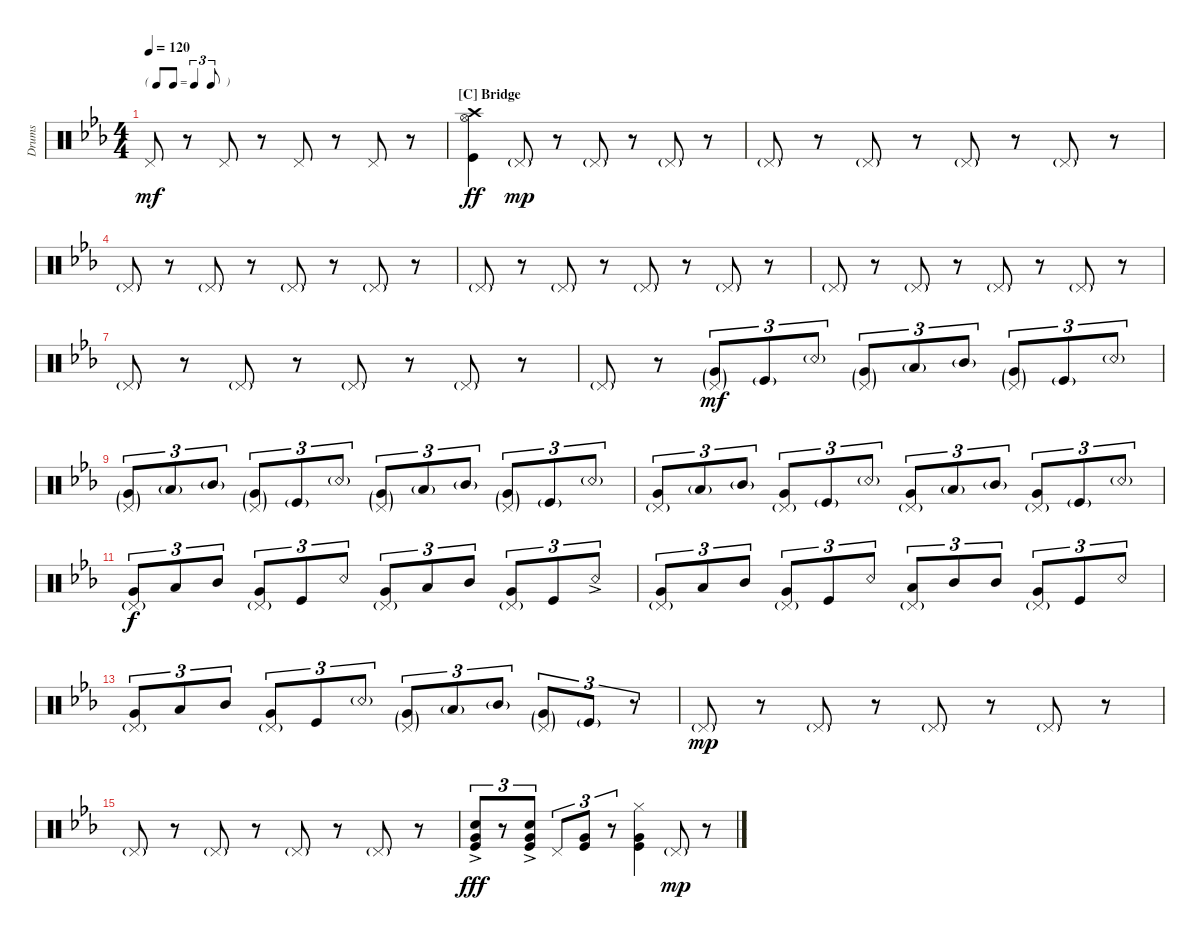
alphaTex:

\bracketExtendMode nobrackets
\otherSystemsTrackNameOrientation horizontal
\defaultBarNumberDisplay FirstOfSystem
\track ("Drumkit" "Drums") {instrument percussion}
\staff {score}
\articulation defaults
\ts (4 4)
\tf triplet8th
\tempo 120
\clef neutral
\ks cminor "Pedal Hi-Hat (hit)".8{dy mf}
r.8 "Pedal Hi-Hat (hit)".8 r.8 "Pedal Hi-Hat (hit)".8 r.8 "Pedal Hi-Hat (hit)".8 r.8 |
\section ("C" "Bridge")
("Kick (hit)" "Hi-Hat (open)" "Crash high (hit)").4{dy ff} "Pedal Hi-Hat (hit)"{g}.8{dy mp} r.8 "Pedal Hi-Hat (hit)"{g}.8 r.8 "Pedal Hi-Hat (hit)"{g}.8 r.8 |
"Pedal Hi-Hat (hit)"{g}.8 r.8 "Pedal Hi-Hat (hit)"{g}.8 r.8 "Pedal Hi-Hat (hit)"{g}.8 r.8 "Pedal Hi-Hat (hit)"{g}.8 r.8 |
"Pedal Hi-Hat (hit)"{g}.8 r.8 "Pedal Hi-Hat (hit)"{g}.8 r.8 "Pedal Hi-Hat (hit)"{g}.8 r.8 "Pedal Hi-Hat (hit)"{g}.8 r.8 |
"Pedal Hi-Hat (hit)"{g}.8 r.8 "Pedal Hi-Hat (hit)"{g}.8 r.8 "Pedal Hi-Hat (hit)"{g}.8 r.8 "Pedal Hi-Hat (hit)"{g}.8 r.8 |
"Pedal Hi-Hat (hit)"{g}.8 r.8 "Pedal Hi-Hat (hit)"{g}.8 r.8 "Pedal Hi-Hat (hit)"{g}.8 r.8 "Pedal Hi-Hat (hit)"{g}.8 r.8 |
"Pedal Hi-Hat (hit)"{g}.8 r.8 "Pedal Hi-Hat (hit)"{g}.8 r.8 "Pedal Hi-Hat (hit)"{g}.8 r.8 "Pedal Hi-Hat (hit)"{g}.8 r.8 |
"Pedal Hi-Hat (hit)"{g}.8 r.8 ("Pedal Hi-Hat (hit)"{g} "Very Low Tom (hit)"{g}).8{tu (3 2) dy mf} "Kick (hit)"{g}.8{tu (3 2)} "Snare (rim shot)"{g}.8{tu (3 2)} ("Pedal Hi-Hat (hit)"{g} "Very Low Tom (hit)"{g}).8{tu (3 2)} "Low Tom (hit)"{g}.8{tu (3 2)} "Mid Tom (hit)"{g}.8{tu (3 2)} ("Pedal Hi-Hat (hit)"{g} "Very Low Tom (hit)"{g}).8{tu (3 2)} "Kick (hit)"{g}.8{tu (3 2)} "Snare (rim shot)"{g}.8{tu (3 2)} |
("Pedal Hi-Hat (hit)"{g} "Very Low Tom (hit)"{g}).8{tu (3 2)} "Low Tom (hit)"{g}.8{tu (3 2)} "Mid Tom (hit)"{g}.8{tu (3 2)} ("Pedal Hi-Hat (hit)"{g} "Very Low Tom (hit)"{g}).8{tu (3 2)} "Kick (hit)"{g}.8{tu (3 2)} "Snare (rim shot)"{g}.8{tu (3 2)} ("Pedal Hi-Hat (hit)"{g} "Very Low Tom (hit)"{g}).8{tu (3 2)} "Low Tom (hit)"{g}.8{tu (3 2)} "Mid Tom (hit)"{g}.8{tu (3 2)} ("Pedal Hi-Hat (hit)"{g} "Very Low Tom (hit)"{g}).8{tu (3 2)} "Kick (hit)"{g}.8{tu (3 2)} "Snare (rim shot)"{g}.8{tu (3 2)} |
("Pedal Hi-Hat (hit)"{g} "Very Low Tom (hit)").8{tu (3 2)} "Low Tom (hit)"{g}.8{tu (3 2)} "Mid Tom (hit)"{g}.8{tu (3 2)} ("Pedal Hi-Hat (hit)"{g} "Very Low Tom (hit)").8{tu (3 2)} "Kick (hit)"{g}.8{tu (3 2)} "Snare (rim shot)"{g}.8{tu (3 2)} ("Pedal Hi-Hat (hit)"{g} "Very Low Tom (hit)").8{tu (3 2)} "Low Tom (hit)"{g}.8{tu (3 2)} "Mid Tom (hit)"{g}.8{tu (3 2)} ("Pedal Hi-Hat (hit)"{g} "Very Low Tom (hit)").8{tu (3 2)} "Kick (hit)"{g}.8{tu (3 2)} "Snare (rim shot)"{g}.8{tu (3 2)} |
("Pedal Hi-Hat (hit)"{g} "Very Low Tom (hit)").8{tu (3 2) dy f} "Low Tom (hit)".8{tu (3 2)} "Mid Tom (hit)".8{tu (3 2)} ("Pedal Hi-Hat (hit)"{g} "Very Low Tom (hit)").8{tu (3 2)} "Kick (hit)".8{tu (3 2)} "Snare (rim shot)".8{tu (3 2)} ("Pedal Hi-Hat (hit)"{g} "Very Low Tom (hit)").8{tu (3 2)} "Low Tom (hit)".8{tu (3 2)} "Mid Tom (hit)".8{tu (3 2)} ("Pedal Hi-Hat (hit)"{g} "Very Low Tom (hit)").8{tu (3 2)} "Kick (hit)".8{tu (3 2)} "Snare (rim shot)"{ac}.8{tu (3 2)} |
("Pedal Hi-Hat (hit)"{g} "Very Low Tom (hit)").8{tu (3 2)} "Low Tom (hit)".8{tu (3 2)} "Mid Tom (hit)".8{tu (3 2)} ("Pedal Hi-Hat (hit)"{g} "Very Low Tom (hit)").8{tu (3 2)} "Kick (hit)".8{tu (3 2)} "Snare (rim shot)".8{tu (3 2)} ("Pedal Hi-Hat (hit)"{g} "Low Tom (hit)").8{tu (3 2)} "Mid Tom (hit)".8{tu (3 2)} "Mid Tom (hit)".8{tu (3 2)} ("Pedal Hi-Hat (hit)"{g} "Very Low Tom (hit)").8{tu (3 2)} "Kick (hit)".8{tu (3 2)} "Snare (rim shot)".8{tu (3 2)} |
("Pedal Hi-Hat (hit)"{g} "Very Low Tom (hit)").8{tu (3 2)} "Low Tom (hit)".8{tu (3 2)} "Mid Tom (hit)".8{tu (3 2)} ("Pedal Hi-Hat (hit)"{g} "Very Low Tom (hit)").8{tu (3 2)} "Kick (hit)".8{tu (3 2)} "Snare (rim shot)"{g}.8{tu (3 2)} ("Pedal Hi-Hat (hit)"{g} "Very Low Tom (hit)"{g}).8{tu (3 2)} "Low Tom (hit)"{g}.8{tu (3 2)} "Mid Tom (hit)"{g}.8{tu (3 2)} ("Pedal Hi-Hat (hit)"{g} "Very Low Tom (hit)"{g}).8{tu (3 2)} "Kick (hit)"{g}.8{tu (3 2)} r.8{tu (3 2)} |
"Pedal Hi-Hat (hit)"{g}.8{dy mp} r.8 "Pedal Hi-Hat (hit)"{g}.8 r.8 "Pedal Hi-Hat (hit)"{g}.8 r.8 "Pedal Hi-Hat (hit)"{g}.8 r.8 |
"Pedal Hi-Hat (hit)"{g}.8 r.8 "Pedal Hi-Hat (hit)"{g}.8 r.8 "Pedal Hi-Hat (hit)"{g}.8 r.8 "Pedal Hi-Hat (hit)"{g}.8 r.8 |
("Kick (hit)"{ac} "Very Low Tom (hit)" "Snare (hit) 2").8{tu (3 2) dy fff} r.8{tu (3 2)} ("Kick (hit)"{ac} "Very Low Tom (hit)" "Snare (hit) 2").8{tu (3 2)} "Pedal Hi-Hat (hit)".8{tu (3 2)} ("Kick (hit)" "Very Low Tom (hit)").8{tu (3 2)} r.8{tu (3 2)} ("Kick (hit)" "Very Low Tom (hit)" "Hi-Hat (closed)").4 "Pedal Hi-Hat (hit)"{g}.8{dy mp} r.8
